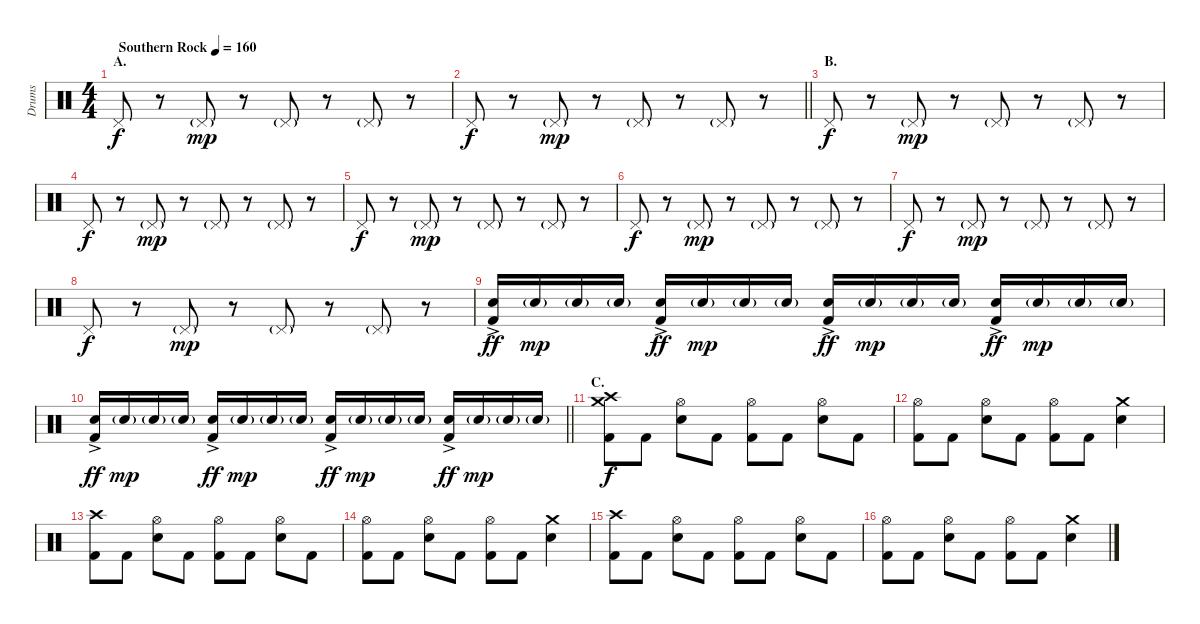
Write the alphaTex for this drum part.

\track ("Drums" "Drums") {instrument percussion}
\staff {score}
\articulation defaults
\ts (4 4)
\section ("" "A.")
\tempo (160 "Southern Rock")
\clef neutral
\ks c "Pedal Hi-Hat (hit)".8{dy f}
r.8 "Pedal Hi-Hat (hit)"{g}.8{dy mp} r.8 "Pedal Hi-Hat (hit)"{g}.8 r.8 "Pedal Hi-Hat (hit)"{g}.8 r.8 |
\barLineRight lightlight "Pedal Hi-Hat (hit)".8{dy f}
r.8 "Pedal Hi-Hat (hit)"{g}.8{dy mp} r.8 "Pedal Hi-Hat (hit)"{g}.8 r.8 "Pedal Hi-Hat (hit)"{g}.8 r.8 |
\section ("" "B.")
"Pedal Hi-Hat (hit)".8{dy f} r.8 "Pedal Hi-Hat (hit)"{g}.8{dy mp} r.8 "Pedal Hi-Hat (hit)"{g}.8 r.8 "Pedal Hi-Hat (hit)"{g}.8 r.8 |
"Pedal Hi-Hat (hit)".8{dy f} r.8 "Pedal Hi-Hat (hit)"{g}.8{dy mp} r.8 "Pedal Hi-Hat (hit)"{g}.8 r.8 "Pedal Hi-Hat (hit)"{g}.8 r.8 |
"Pedal Hi-Hat (hit)".8{dy f} r.8 "Pedal Hi-Hat (hit)"{g}.8{dy mp} r.8 "Pedal Hi-Hat (hit)"{g}.8 r.8 "Pedal Hi-Hat (hit)"{g}.8 r.8 |
"Pedal Hi-Hat (hit)".8{dy f} r.8 "Pedal Hi-Hat (hit)"{g}.8{dy mp} r.8 "Pedal Hi-Hat (hit)"{g}.8 r.8 "Pedal Hi-Hat (hit)"{g}.8 r.8 |
"Pedal Hi-Hat (hit)".8{dy f} r.8 "Pedal Hi-Hat (hit)"{g}.8{dy mp} r.8 "Pedal Hi-Hat (hit)"{g}.8 r.8 "Pedal Hi-Hat (hit)"{g}.8 r.8 |
"Pedal Hi-Hat (hit)".8{dy f} r.8 "Pedal Hi-Hat (hit)"{g}.8{dy mp} r.8 "Pedal Hi-Hat (hit)"{g}.8 r.8 "Pedal Hi-Hat (hit)"{g}.8 r.8 |
("Electric Snare (hit)"{ac} "Kick (hit) 2").16{dy ff} "Electric Snare (hit)"{g}.16{dy mp} "Electric Snare (hit)"{g}.16 "Electric Snare (hit)"{g}.16 ("Electric Snare (hit)"{ac} "Kick (hit) 2").16{dy ff} "Electric Snare (hit)"{g}.16{dy mp} "Electric Snare (hit)"{g}.16 "Electric Snare (hit)"{g}.16 ("Electric Snare (hit)"{ac} "Kick (hit) 2").16{dy ff} "Electric Snare (hit)"{g}.16{dy mp} "Electric Snare (hit)"{g}.16 "Electric Snare (hit)"{g}.16 ("Electric Snare (hit)"{ac} "Kick (hit) 2").16{dy ff} "Electric Snare (hit)"{g}.16{dy mp} "Electric Snare (hit)"{g}.16 "Electric Snare (hit)"{g}.16 |
\barLineRight lightlight
("Electric Snare (hit)"{ac} "Kick (hit) 2").16{dy ff} "Electric Snare (hit)"{g}.16{dy mp} "Electric Snare (hit)"{g}.16 "Electric Snare (hit)"{g}.16 ("Electric Snare (hit)"{ac} "Kick (hit) 2").16{dy ff} "Electric Snare (hit)"{g}.16{dy mp} "Electric Snare (hit)"{g}.16 "Electric Snare (hit)"{g}.16 ("Electric Snare (hit)"{ac} "Kick (hit) 2").16{dy ff} "Electric Snare (hit)"{g}.16{dy mp} "Electric Snare (hit)"{g}.16 "Electric Snare (hit)"{g}.16 ("Electric Snare (hit)"{ac} "Kick (hit) 2").16{dy ff} "Electric Snare (hit)"{g}.16{dy mp} "Electric Snare (hit)"{g}.16 "Electric Snare (hit)"{g}.16 |
\section ("" "C.")
("Crash medium (hit)" "Crash high (hit)" "Kick (hit) 2").8{dy f} "Kick (hit) 2".8 ("Hi-Hat (open)" "Electric Snare (hit)").8 "Kick (hit) 2".8 ("Hi-Hat (open)" "Kick (hit) 2").8 "Kick (hit) 2".8 ("Hi-Hat (open)" "Electric Snare (hit)").8 "Kick (hit) 2".8 |
("Hi-Hat (open)" "Kick (hit) 2").8 "Kick (hit) 2".8 ("Hi-Hat (open)" "Electric Snare (hit)").8 "Kick (hit) 2".8 ("Hi-Hat (open)" "Kick (hit) 2").8 "Kick (hit) 2".8 ("Crash medium (hit)" "Electric Snare (hit)").4 |
("Crash high (hit)" "Kick (hit) 2").8 "Kick (hit) 2".8 ("Hi-Hat (open)" "Electric Snare (hit)").8 "Kick (hit) 2".8 ("Hi-Hat (open)" "Kick (hit) 2").8 "Kick (hit) 2".8 ("Hi-Hat (open)" "Electric Snare (hit)").8 "Kick (hit) 2".8 |
("Hi-Hat (open)" "Kick (hit) 2").8 "Kick (hit) 2".8 ("Hi-Hat (open)" "Electric Snare (hit)").8 "Kick (hit) 2".8 ("Hi-Hat (open)" "Kick (hit) 2").8 "Kick (hit) 2".8 ("Crash medium (hit)" "Electric Snare (hit)").4 |
("Crash high (hit)" "Kick (hit) 2").8 "Kick (hit) 2".8 ("Hi-Hat (open)" "Electric Snare (hit)").8 "Kick (hit) 2".8 ("Hi-Hat (open)" "Kick (hit) 2").8 "Kick (hit) 2".8 ("Hi-Hat (open)" "Electric Snare (hit)").8 "Kick (hit) 2".8 |
("Hi-Hat (open)" "Kick (hit) 2").8 "Kick (hit) 2".8 ("Hi-Hat (open)" "Electric Snare (hit)").8 "Kick (hit) 2".8 ("Hi-Hat (open)" "Kick (hit) 2").8 "Kick (hit) 2".8 ("Crash medium (hit)" "Electric Snare (hit)").4
